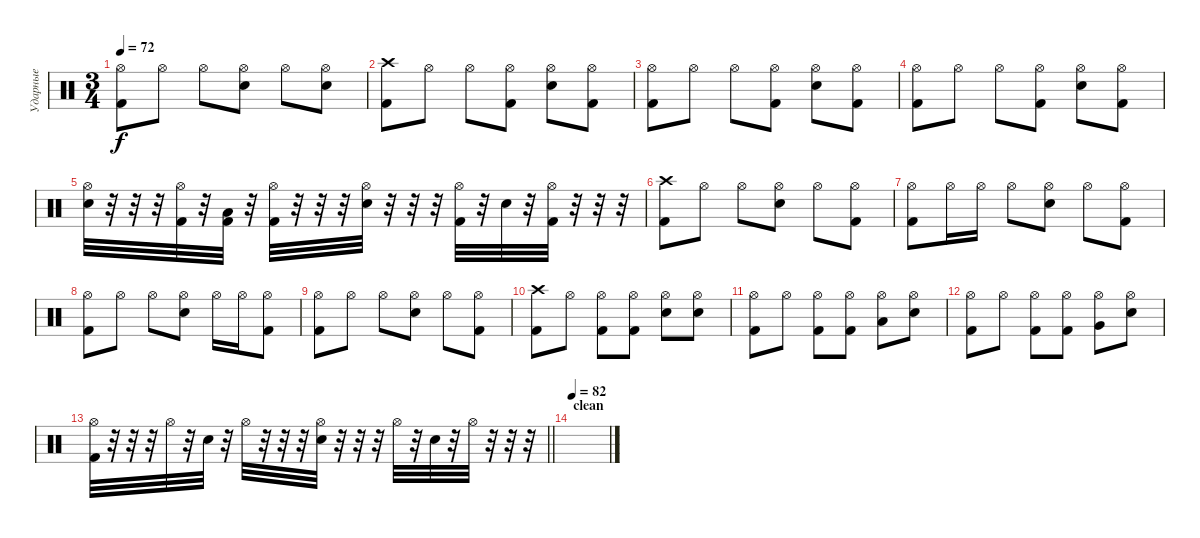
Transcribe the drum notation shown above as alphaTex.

\track ("Ударные" "Ударные") {instrument percussion}
\staff {score}
\articulation defaults
\ts (3 4)
\tempo 72
\clef neutral
\ks c
("Hi-Hat (open)" "Kick (hit) 2").8{dy f} "Hi-Hat (open)".8 "Hi-Hat (open)".8 ("Hi-Hat (open)" "Snare (hit) 2").8 "Hi-Hat (open)".8 ("Hi-Hat (open)" "Snare (hit) 2").8 |
("Crash high (hit)" "Kick (hit) 2").8 "Hi-Hat (open)".8 "Hi-Hat (open)".8 ("Hi-Hat (open)" "Kick (hit) 2").8 ("Hi-Hat (open)" "Snare (hit) 2").8 ("Hi-Hat (open)" "Kick (hit) 2").8 |
("Hi-Hat (open)" "Kick (hit) 2").8 "Hi-Hat (open)".8 "Hi-Hat (open)".8 ("Hi-Hat (open)" "Kick (hit) 2").8 ("Hi-Hat (open)" "Snare (hit) 2").8 ("Hi-Hat (open)" "Kick (hit) 2").8 |
("Hi-Hat (open)" "Kick (hit) 2").8 "Hi-Hat (open)".8 "Hi-Hat (open)".8 ("Hi-Hat (open)" "Kick (hit) 2").8 ("Hi-Hat (open)" "Snare (hit) 2").8 ("Hi-Hat (open)" "Kick (hit) 2").8 |
("Hi-Hat (open)" "Snare (hit) 2").32 r.32 r.32 r.32 ("Hi-Hat (open)" "Kick (hit) 2").32 r.32 ("Low Tom (hit)" "Kick (hit) 2").32 r.32 ("Hi-Hat (open)" "Kick (hit) 2").32 r.32 r.32 r.32 ("Hi-Hat (open)" "Snare (hit) 2").32 r.32 r.32 r.32 ("Hi-Hat (open)" "Kick (hit) 2").32 r.32 "Snare (hit) 2".32 r.32 ("Hi-Hat (open)" "Kick (hit) 2").32 r.32 r.32 r.32 |
("Crash high (hit)" "Kick (hit) 2").8 "Hi-Hat (open)".8 "Hi-Hat (open)".8 ("Hi-Hat (open)" "Snare (hit) 2").8 "Hi-Hat (open)".8 ("Hi-Hat (open)" "Kick (hit) 2").8 |
("Hi-Hat (open)" "Kick (hit) 2").8 "Hi-Hat (open)".16 "Hi-Hat (open)".16 "Hi-Hat (open)".8 ("Hi-Hat (open)" "Snare (hit) 2").8 "Hi-Hat (open)".8 ("Hi-Hat (open)" "Kick (hit) 2").8 |
("Hi-Hat (open)" "Kick (hit) 2").8 "Hi-Hat (open)".8 "Hi-Hat (open)".8 ("Hi-Hat (open)" "Snare (hit) 2").8 "Hi-Hat (open)".16 "Hi-Hat (open)".16 ("Hi-Hat (open)" "Kick (hit) 2").8 |
("Hi-Hat (open)" "Kick (hit) 2").8 "Hi-Hat (open)".8 "Hi-Hat (open)".8 ("Hi-Hat (open)" "Snare (hit) 2").8 "Hi-Hat (open)".8 ("Hi-Hat (open)" "Kick (hit) 2").8 |
("Crash high (hit)" "Kick (hit) 2").8 "Hi-Hat (open)".8 ("Hi-Hat (open)" "Kick (hit) 2").8 ("Hi-Hat (open)" "Kick (hit) 2").8 ("Hi-Hat (open)" "Snare (hit) 2").8 ("Hi-Hat (open)" "Snare (hit) 2").8 |
("Hi-Hat (open)" "Kick (hit) 2").8 "Hi-Hat (open)".8 ("Hi-Hat (open)" "Kick (hit) 2").8 ("Hi-Hat (open)" "Kick (hit) 2").8 ("Hi-Hat (open)" "Low Tom (hit)").8 ("Hi-Hat (open)" "Snare (hit) 2").8 |
("Hi-Hat (open)" "Kick (hit) 2").8 "Hi-Hat (open)".8 ("Hi-Hat (open)" "Kick (hit) 2").8 ("Hi-Hat (open)" "Kick (hit) 2").8 ("Hi-Hat (open)" "Very Low Tom (hit)").8 ("Hi-Hat (open)" "Snare (hit) 2").8 |
\barLineRight lightlight
("Hi-Hat (open)" "Kick (hit) 2").32 r.32 r.32 r.32 "Hi-Hat (open)".32 r.32 "Snare (hit) 2".32 r.32 "Hi-Hat (open)".32 r.32 r.32 r.32 ("Hi-Hat (open)" "Snare (hit) 2").32 r.32 r.32 r.32 "Hi-Hat (open)".32 r.32 "Snare (hit) 2".32 r.32 "Hi-Hat (open)".32 r.32 r.32 r.32 |
\section ("" "clean")
\tempo 82
